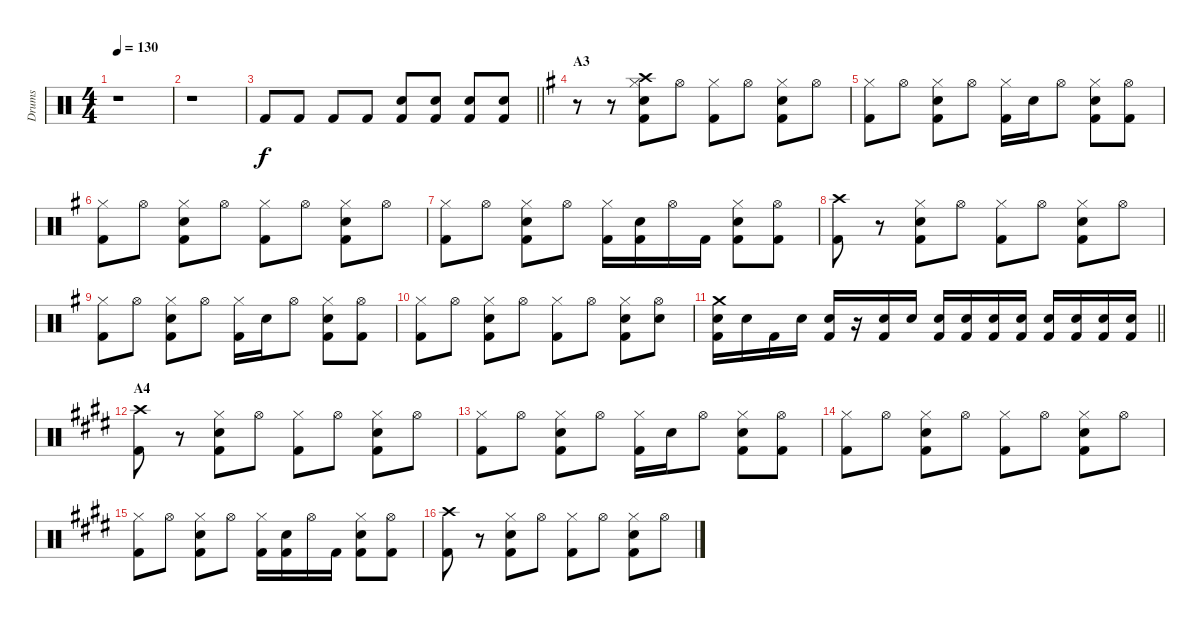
\track ("Drums" "Drums") {instrument percussion}
\staff {score}
\articulation defaults
\ts (4 4)
\tempo 130
\clef neutral
\ks c
r.1{dy fff} |
r.1 |
\barLineRight lightlight "Kick (hit) 2".8{dy f} "Kick (hit) 2".8 "Kick (hit) 2".8 "Kick (hit) 2".8
("Electric Snare (hit)" "Kick (hit) 2").8 ("Electric Snare (hit)" "Kick (hit) 2").8 ("Electric Snare (hit)" "Kick (hit) 2").8 ("Electric Snare (hit)" "Kick (hit) 2").8 |
\section ("" "A3")
\ks g
r.8 r.8 ("Hi-Hat (closed)" "Crash high (hit)" "Electric Snare (hit)" "Kick (hit) 2").8 "Hi-Hat (open)".8 ("Hi-Hat (closed)" "Kick (hit) 2").8 "Hi-Hat (open)".8 ("Hi-Hat (closed)" "Electric Snare (hit)" "Kick (hit) 2").8 "Hi-Hat (open)".8 |
("Hi-Hat (closed)" "Kick (hit) 2").8 "Hi-Hat (open)".8 ("Hi-Hat (closed)" "Electric Snare (hit)" "Kick (hit) 2").8 "Hi-Hat (open)".8 ("Hi-Hat (closed)" "Kick (hit) 2").16 "Electric Snare (hit)".16 "Hi-Hat (open)".8 ("Hi-Hat (closed)" "Electric Snare (hit)" "Kick (hit) 2").8 ("Hi-Hat (open)" "Kick (hit) 2").8 |
("Hi-Hat (closed)" "Kick (hit) 2").8 "Hi-Hat (open)".8 ("Hi-Hat (closed)" "Electric Snare (hit)" "Kick (hit) 2").8 "Hi-Hat (open)".8 ("Hi-Hat (closed)" "Kick (hit) 2").8 "Hi-Hat (open)".8 ("Hi-Hat (closed)" "Electric Snare (hit)" "Kick (hit) 2").8 "Hi-Hat (open)".8 |
("Hi-Hat (closed)" "Kick (hit) 2").8 "Hi-Hat (open)".8 ("Hi-Hat (closed)" "Electric Snare (hit)" "Kick (hit) 2").8 "Hi-Hat (open)".8 ("Hi-Hat (closed)" "Kick (hit) 2").16 ("Electric Snare (hit)" "Kick (hit) 2").16 "Hi-Hat (open)".16 "Kick (hit) 2".16 ("Hi-Hat (closed)" "Electric Snare (hit)" "Kick (hit) 2").8 ("Hi-Hat (open)" "Kick (hit) 2").8 |
("Crash high (hit)" "Kick (hit) 2").8 r.8 ("Hi-Hat (closed)" "Electric Snare (hit)" "Kick (hit) 2").8 "Hi-Hat (open)".8 ("Hi-Hat (closed)" "Kick (hit) 2").8 "Hi-Hat (open)".8 ("Hi-Hat (closed)" "Electric Snare (hit)" "Kick (hit) 2").8 "Hi-Hat (open)".8 |
("Hi-Hat (closed)" "Kick (hit) 2").8 "Hi-Hat (open)".8 ("Hi-Hat (closed)" "Electric Snare (hit)" "Kick (hit) 2").8 "Hi-Hat (open)".8 ("Hi-Hat (closed)" "Kick (hit) 2").16 "Electric Snare (hit)".16 "Hi-Hat (open)".8 ("Hi-Hat (closed)" "Electric Snare (hit)" "Kick (hit) 2").8 ("Hi-Hat (open)" "Kick (hit) 2").8 |
("Hi-Hat (closed)" "Kick (hit) 2").8 "Hi-Hat (open)".8 ("Hi-Hat (closed)" "Electric Snare (hit)" "Kick (hit) 2").8 "Hi-Hat (open)".8 ("Hi-Hat (closed)" "Kick (hit) 2").8 "Hi-Hat (open)".8 ("Hi-Hat (closed)" "Electric Snare (hit)" "Kick (hit) 2").8 ("Hi-Hat (open)" "Electric Snare (hit)").8 |
\barLineRight lightlight
("Crash medium (hit)" "Electric Snare (hit)" "Kick (hit) 2").16 "Electric Snare (hit)".16 "Kick (hit) 2".16 "Electric Snare (hit)".16 ("Electric Snare (hit)" "Kick (hit) 2").16 r.16 ("Electric Snare (hit)" "Kick (hit) 2").16 "Electric Snare (hit)".16 ("Electric Snare (hit)" "Kick (hit) 2").16 ("Electric Snare (hit)" "Kick (hit) 2").16 ("Electric Snare (hit)" "Kick (hit) 2").16 ("Electric Snare (hit)" "Kick (hit) 2").16 ("Electric Snare (hit)" "Kick (hit) 2").16 ("Electric Snare (hit)" "Kick (hit) 2").16 ("Electric Snare (hit)" "Kick (hit) 2").16 ("Electric Snare (hit)" "Kick (hit) 2").16 |
\section ("" "A4")
\ks e
("Crash high (hit)" "Kick (hit) 2").8 r.8 ("Hi-Hat (closed)" "Electric Snare (hit)" "Kick (hit) 2").8 "Hi-Hat (open)".8 ("Hi-Hat (closed)" "Kick (hit) 2").8 "Hi-Hat (open)".8 ("Hi-Hat (closed)" "Electric Snare (hit)" "Kick (hit) 2").8 "Hi-Hat (open)".8 |
("Hi-Hat (closed)" "Kick (hit) 2").8 "Hi-Hat (open)".8 ("Hi-Hat (closed)" "Electric Snare (hit)" "Kick (hit) 2").8 "Hi-Hat (open)".8 ("Hi-Hat (closed)" "Kick (hit) 2").16 "Electric Snare (hit)".16 "Hi-Hat (open)".8 ("Hi-Hat (closed)" "Electric Snare (hit)" "Kick (hit) 2").8 ("Hi-Hat (open)" "Kick (hit) 2").8 |
("Hi-Hat (closed)" "Kick (hit) 2").8 "Hi-Hat (open)".8 ("Hi-Hat (closed)" "Electric Snare (hit)" "Kick (hit) 2").8 "Hi-Hat (open)".8 ("Hi-Hat (closed)" "Kick (hit) 2").8 "Hi-Hat (open)".8 ("Hi-Hat (closed)" "Electric Snare (hit)" "Kick (hit) 2").8 "Hi-Hat (open)".8 |
("Hi-Hat (closed)" "Kick (hit) 2").8 "Hi-Hat (open)".8 ("Hi-Hat (closed)" "Electric Snare (hit)" "Kick (hit) 2").8 "Hi-Hat (open)".8 ("Hi-Hat (closed)" "Kick (hit) 2").16 ("Electric Snare (hit)" "Kick (hit) 2").16 "Hi-Hat (open)".16 "Kick (hit) 2".16 ("Hi-Hat (closed)" "Electric Snare (hit)" "Kick (hit) 2").8 ("Hi-Hat (open)" "Kick (hit) 2").8 |
("Crash high (hit)" "Kick (hit) 2").8 r.8 ("Hi-Hat (closed)" "Electric Snare (hit)" "Kick (hit) 2").8 "Hi-Hat (open)".8 ("Hi-Hat (closed)" "Kick (hit) 2").8 "Hi-Hat (open)".8 ("Hi-Hat (closed)" "Electric Snare (hit)" "Kick (hit) 2").8 "Hi-Hat (open)".8
